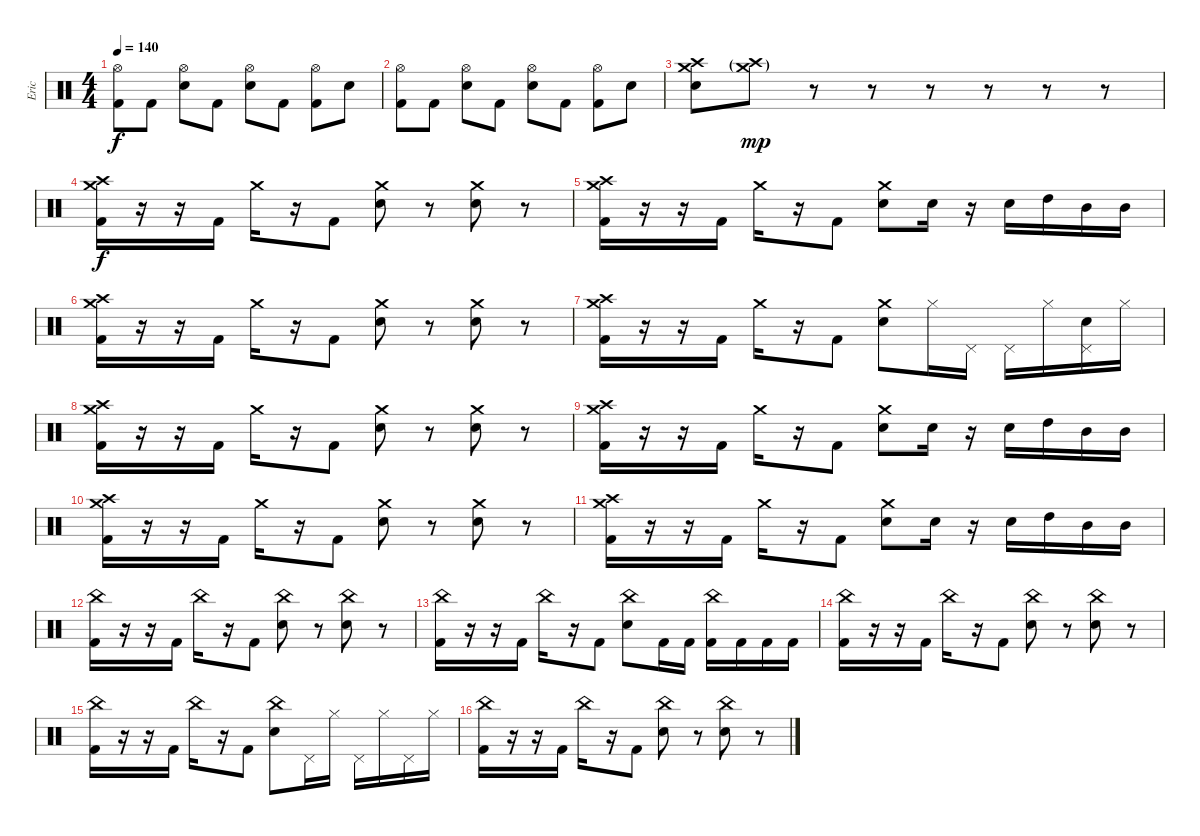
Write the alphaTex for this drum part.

\track ("Eric" "Eric") {instrument percussion}
\staff {score}
\articulation defaults
\ts (4 4)
\tempo 140
\clef neutral
\ks c
("Hi-Hat (open)" "Kick (hit) 2").8{dy f} "Kick (hit) 2".8 ("Hi-Hat (open)" "Electric Snare (hit)").8 "Kick (hit) 2".8 ("Hi-Hat (open)" "Electric Snare (hit)").8 "Kick (hit) 2".8 ("Hi-Hat (open)" "Kick (hit) 2").8 "Electric Snare (hit)".8 |
("Hi-Hat (open)" "Kick (hit) 2").8 "Kick (hit) 2".8 ("Hi-Hat (open)" "Electric Snare (hit)").8 "Kick (hit) 2".8 ("Hi-Hat (open)" "Electric Snare (hit)").8 "Kick (hit) 2".8 ("Hi-Hat (open)" "Kick (hit) 2").8 "Electric Snare (hit)".8 |
("Crash medium (hit)" "Crash high (hit)" "Electric Snare (hit)").8 ("Crash medium (hit)"{g} "Crash high (hit)"{g}).8{dy mp} r.8 r.8 r.8 r.8 r.8 r.8 |
("Crash medium (hit)" "Crash high (hit)" "Kick (hit) 2").16{dy f} r.16 r.16 "Kick (hit) 2".16 "Crash medium (hit)".16 r.16 "Kick (hit) 2".8 ("Crash medium (hit)" "Electric Snare (hit)").8 r.8 ("Crash medium (hit)" "Electric Snare (hit)").8 r.8 |
("Crash medium (hit)" "Crash high (hit)" "Kick (hit) 2").16 r.16 r.16 "Kick (hit) 2".16 "Crash medium (hit)".16 r.16 "Kick (hit) 2".8 ("Crash medium (hit)" "Electric Snare (hit)").8 "Electric Snare (hit)".16 r.16 "Electric Snare (hit)".16 "High Tom (hit)".16 "Mid Tom (hit)".16 "Mid Tom (hit)".16 |
("Crash medium (hit)" "Crash high (hit)" "Kick (hit) 2").16 r.16 r.16 "Kick (hit) 2".16 "Crash medium (hit)".16 r.16 "Kick (hit) 2".8 ("Crash medium (hit)" "Electric Snare (hit)").8 r.8 ("Crash medium (hit)" "Electric Snare (hit)").8 r.8 |
("Crash medium (hit)" "Crash high (hit)" "Kick (hit) 2").16 r.16 r.16 "Kick (hit) 2".16 "Crash medium (hit)".16 r.16 "Kick (hit) 2".8 ("Crash medium (hit)" "Electric Snare (hit)").8 "Hi-Hat (closed)".16 "Pedal Hi-Hat (hit)".16 "Pedal Hi-Hat (hit)".16 "Hi-Hat (closed)".16 ("Pedal Hi-Hat (hit)" "Electric Snare (hit)").16 "Hi-Hat (closed)".16 |
("Crash medium (hit)" "Crash high (hit)" "Kick (hit) 2").16 r.16 r.16 "Kick (hit) 2".16 "Crash medium (hit)".16 r.16 "Kick (hit) 2".8 ("Crash medium (hit)" "Electric Snare (hit)").8 r.8 ("Crash medium (hit)" "Electric Snare (hit)").8 r.8 |
("Crash medium (hit)" "Crash high (hit)" "Kick (hit) 2").16 r.16 r.16 "Kick (hit) 2".16 "Crash medium (hit)".16 r.16 "Kick (hit) 2".8 ("Crash medium (hit)" "Electric Snare (hit)").8 "Electric Snare (hit)".16 r.16 "Electric Snare (hit)".16 "High Tom (hit)".16 "Mid Tom (hit)".16 "Mid Tom (hit)".16 |
("Crash medium (hit)" "Crash high (hit)" "Kick (hit) 2").16 r.16 r.16 "Kick (hit) 2".16 "Crash medium (hit)".16 r.16 "Kick (hit) 2".8 ("Crash medium (hit)" "Electric Snare (hit)").8 r.8 ("Crash medium (hit)" "Electric Snare (hit)").8 r.8 |
("Crash medium (hit)" "Crash high (hit)" "Kick (hit) 2").16 r.16 r.16 "Kick (hit) 2".16 "Crash medium (hit)".16 r.16 "Kick (hit) 2".8 ("Crash medium (hit)" "Electric Snare (hit)").8 "Electric Snare (hit)".16 r.16 "Electric Snare (hit)".16 "High Tom (hit)".16 "Mid Tom (hit)".16 "Mid Tom (hit)".16 |
("China (hit)" "Kick (hit) 2").16 r.16 r.16 "Kick (hit) 2".16 "China (hit)".16 r.16 "Kick (hit) 2".8 ("China (hit)" "Electric Snare (hit)").8 r.8 ("China (hit)" "Electric Snare (hit)").8 r.8 |
("China (hit)" "Kick (hit) 2").16 r.16 r.16 "Kick (hit) 2".16 "China (hit)".16 r.16 "Kick (hit) 2".8 ("China (hit)" "Electric Snare (hit)").8 "Kick (hit) 2".16 "Kick (hit) 2".16 ("China (hit)" "Kick (hit) 2").16 "Kick (hit) 2".16 "Kick (hit) 2".16 "Kick (hit) 2".16 |
("China (hit)" "Kick (hit) 2").16 r.16 r.16 "Kick (hit) 2".16 "China (hit)".16 r.16 "Kick (hit) 2".8 ("China (hit)" "Electric Snare (hit)").8 r.8 ("China (hit)" "Electric Snare (hit)").8 r.8 |
("China (hit)" "Kick (hit) 2").16 r.16 r.16 "Kick (hit) 2".16 "China (hit)".16 r.16 "Kick (hit) 2".8 ("China (hit)" "Electric Snare (hit)").8 "Pedal Hi-Hat (hit)".16 "Hi-Hat (closed)".16 "Pedal Hi-Hat (hit)".16 "Hi-Hat (closed)".16 "Pedal Hi-Hat (hit)".16 "Hi-Hat (closed)".16 |
("China (hit)" "Kick (hit) 2").16 r.16 r.16 "Kick (hit) 2".16 "China (hit)".16 r.16 "Kick (hit) 2".8 ("China (hit)" "Electric Snare (hit)").8 r.8 ("China (hit)" "Electric Snare (hit)").8 r.8
